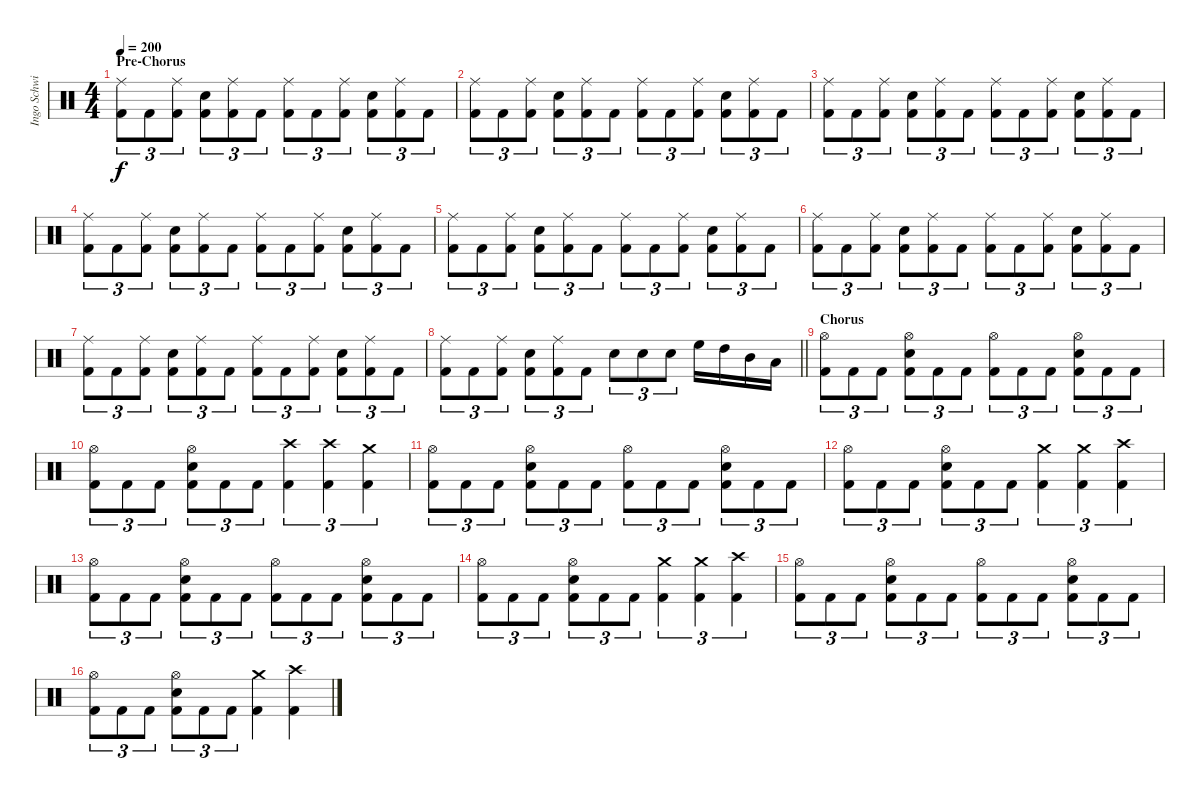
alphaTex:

\track ("Ingo Schwichtenberg" "Ingo Schwi") {instrument percussion}
\staff {score}
\articulation defaults
\ts (4 4)
\section ("" "Pre-Chorus")
\tempo 200
\clef neutral
\ks c
("Ride (middle)" "Kick (hit) 2").8{tu (3 2) dy f} "Kick (hit) 2".8{tu (3 2)} ("Ride (middle)" "Kick (hit) 2").8{tu (3 2)} ("Snare (hit) 2" "Kick (hit) 2").8{tu (3 2)} ("Ride (middle)" "Kick (hit) 2").8{tu (3 2)} "Kick (hit) 2".8{tu (3 2)} ("Ride (middle)" "Kick (hit) 2").8{tu (3 2)} "Kick (hit) 2".8{tu (3 2)} ("Ride (middle)" "Kick (hit) 2").8{tu (3 2)} ("Snare (hit) 2" "Kick (hit) 2").8{tu (3 2)} ("Ride (middle)" "Kick (hit) 2").8{tu (3 2)} "Kick (hit) 2".8{tu (3 2)} |
("Ride (middle)" "Kick (hit) 2").8{tu (3 2)} "Kick (hit) 2".8{tu (3 2)} ("Ride (middle)" "Kick (hit) 2").8{tu (3 2)} ("Snare (hit) 2" "Kick (hit) 2").8{tu (3 2)} ("Ride (middle)" "Kick (hit) 2").8{tu (3 2)} "Kick (hit) 2".8{tu (3 2)} ("Ride (middle)" "Kick (hit) 2").8{tu (3 2)} "Kick (hit) 2".8{tu (3 2)} ("Ride (middle)" "Kick (hit) 2").8{tu (3 2)} ("Snare (hit) 2" "Kick (hit) 2").8{tu (3 2)} ("Ride (middle)" "Kick (hit) 2").8{tu (3 2)} "Kick (hit) 2".8{tu (3 2)} |
("Ride (middle)" "Kick (hit) 2").8{tu (3 2)} "Kick (hit) 2".8{tu (3 2)} ("Ride (middle)" "Kick (hit) 2").8{tu (3 2)} ("Snare (hit) 2" "Kick (hit) 2").8{tu (3 2)} ("Ride (middle)" "Kick (hit) 2").8{tu (3 2)} "Kick (hit) 2".8{tu (3 2)} ("Ride (middle)" "Kick (hit) 2").8{tu (3 2)} "Kick (hit) 2".8{tu (3 2)} ("Ride (middle)" "Kick (hit) 2").8{tu (3 2)} ("Snare (hit) 2" "Kick (hit) 2").8{tu (3 2)} ("Ride (middle)" "Kick (hit) 2").8{tu (3 2)} "Kick (hit) 2".8{tu (3 2)} |
("Ride (middle)" "Kick (hit) 2").8{tu (3 2)} "Kick (hit) 2".8{tu (3 2)} ("Ride (middle)" "Kick (hit) 2").8{tu (3 2)} ("Snare (hit) 2" "Kick (hit) 2").8{tu (3 2)} ("Ride (middle)" "Kick (hit) 2").8{tu (3 2)} "Kick (hit) 2".8{tu (3 2)} ("Ride (middle)" "Kick (hit) 2").8{tu (3 2)} "Kick (hit) 2".8{tu (3 2)} ("Ride (middle)" "Kick (hit) 2").8{tu (3 2)} ("Snare (hit) 2" "Kick (hit) 2").8{tu (3 2)} ("Ride (middle)" "Kick (hit) 2").8{tu (3 2)} "Kick (hit) 2".8{tu (3 2)} |
("Ride (middle)" "Kick (hit) 2").8{tu (3 2)} "Kick (hit) 2".8{tu (3 2)} ("Ride (middle)" "Kick (hit) 2").8{tu (3 2)} ("Snare (hit) 2" "Kick (hit) 2").8{tu (3 2)} ("Ride (middle)" "Kick (hit) 2").8{tu (3 2)} "Kick (hit) 2".8{tu (3 2)} ("Ride (middle)" "Kick (hit) 2").8{tu (3 2)} "Kick (hit) 2".8{tu (3 2)} ("Ride (middle)" "Kick (hit) 2").8{tu (3 2)} ("Snare (hit) 2" "Kick (hit) 2").8{tu (3 2)} ("Ride (middle)" "Kick (hit) 2").8{tu (3 2)} "Kick (hit) 2".8{tu (3 2)} |
("Ride (middle)" "Kick (hit) 2").8{tu (3 2)} "Kick (hit) 2".8{tu (3 2)} ("Ride (middle)" "Kick (hit) 2").8{tu (3 2)} ("Snare (hit) 2" "Kick (hit) 2").8{tu (3 2)} ("Ride (middle)" "Kick (hit) 2").8{tu (3 2)} "Kick (hit) 2".8{tu (3 2)} ("Ride (middle)" "Kick (hit) 2").8{tu (3 2)} "Kick (hit) 2".8{tu (3 2)} ("Ride (middle)" "Kick (hit) 2").8{tu (3 2)} ("Snare (hit) 2" "Kick (hit) 2").8{tu (3 2)} ("Ride (middle)" "Kick (hit) 2").8{tu (3 2)} "Kick (hit) 2".8{tu (3 2)} |
("Ride (middle)" "Kick (hit) 2").8{tu (3 2)} "Kick (hit) 2".8{tu (3 2)} ("Ride (middle)" "Kick (hit) 2").8{tu (3 2)} ("Snare (hit) 2" "Kick (hit) 2").8{tu (3 2)} ("Ride (middle)" "Kick (hit) 2").8{tu (3 2)} "Kick (hit) 2".8{tu (3 2)} ("Ride (middle)" "Kick (hit) 2").8{tu (3 2)} "Kick (hit) 2".8{tu (3 2)} ("Ride (middle)" "Kick (hit) 2").8{tu (3 2)} ("Snare (hit) 2" "Kick (hit) 2").8{tu (3 2)} ("Ride (middle)" "Kick (hit) 2").8{tu (3 2)} "Kick (hit) 2".8{tu (3 2)} |
\barLineRight lightlight
("Ride (middle)" "Kick (hit) 2").8{tu (3 2)} "Kick (hit) 2".8{tu (3 2)} ("Ride (middle)" "Kick (hit) 2").8{tu (3 2)} ("Snare (hit) 2" "Kick (hit) 2").8{tu (3 2)} ("Ride (middle)" "Kick (hit) 2").8{tu (3 2)} "Kick (hit) 2".8{tu (3 2)} "Snare (hit) 2".8{tu (3 2)} "Snare (hit) 2".8{tu (3 2)} "Snare (hit) 2".8{tu (3 2)} "High Floor Tom (hit)".16 "High Tom (hit)".16 "Mid Tom (hit)".16 "Low Tom (hit)".16 |
\section ("" "Chorus")
("Hi-Hat (open)" "Kick (hit) 2").8{tu (3 2)} "Kick (hit) 2".8{tu (3 2)} "Kick (hit) 2".8{tu (3 2)} ("Hi-Hat (open)" "Snare (hit) 2" "Kick (hit) 2").8{tu (3 2)} "Kick (hit) 2".8{tu (3 2)} "Kick (hit) 2".8{tu (3 2)} ("Hi-Hat (open)" "Kick (hit) 2").8{tu (3 2)} "Kick (hit) 2".8{tu (3 2)} "Kick (hit) 2".8{tu (3 2)} ("Hi-Hat (open)" "Snare (hit) 2" "Kick (hit) 2").8{tu (3 2)} "Kick (hit) 2".8{tu (3 2)} "Kick (hit) 2".8{tu (3 2)} |
("Hi-Hat (open)" "Kick (hit) 2").8{tu (3 2)} "Kick (hit) 2".8{tu (3 2)} "Kick (hit) 2".8{tu (3 2)} ("Hi-Hat (open)" "Snare (hit) 2" "Kick (hit) 2").8{tu (3 2)} "Kick (hit) 2".8{tu (3 2)} "Kick (hit) 2".8{tu (3 2)} ("Crash high (hit)" "Kick (hit) 2").4{tu (3 2)} ("Crash high (hit)" "Kick (hit) 2").4{tu (3 2)} ("Crash medium (hit)" "Kick (hit) 2").4{tu (3 2)} |
("Hi-Hat (open)" "Kick (hit) 2").8{tu (3 2)} "Kick (hit) 2".8{tu (3 2)} "Kick (hit) 2".8{tu (3 2)} ("Hi-Hat (open)" "Snare (hit) 2" "Kick (hit) 2").8{tu (3 2)} "Kick (hit) 2".8{tu (3 2)} "Kick (hit) 2".8{tu (3 2)} ("Hi-Hat (open)" "Kick (hit) 2").8{tu (3 2)} "Kick (hit) 2".8{tu (3 2)} "Kick (hit) 2".8{tu (3 2)} ("Hi-Hat (open)" "Snare (hit) 2" "Kick (hit) 2").8{tu (3 2)} "Kick (hit) 2".8{tu (3 2)} "Kick (hit) 2".8{tu (3 2)} |
("Hi-Hat (open)" "Kick (hit) 2").8{tu (3 2)} "Kick (hit) 2".8{tu (3 2)} "Kick (hit) 2".8{tu (3 2)} ("Hi-Hat (open)" "Snare (hit) 2" "Kick (hit) 2").8{tu (3 2)} "Kick (hit) 2".8{tu (3 2)} "Kick (hit) 2".8{tu (3 2)} ("Crash medium (hit)" "Kick (hit) 2").4{tu (3 2)} ("Crash medium (hit)" "Kick (hit) 2").4{tu (3 2)} ("Crash high (hit)" "Kick (hit) 2").4{tu (3 2)} |
("Hi-Hat (open)" "Kick (hit) 2").8{tu (3 2)} "Kick (hit) 2".8{tu (3 2)} "Kick (hit) 2".8{tu (3 2)} ("Hi-Hat (open)" "Snare (hit) 2" "Kick (hit) 2").8{tu (3 2)} "Kick (hit) 2".8{tu (3 2)} "Kick (hit) 2".8{tu (3 2)} ("Hi-Hat (open)" "Kick (hit) 2").8{tu (3 2)} "Kick (hit) 2".8{tu (3 2)} "Kick (hit) 2".8{tu (3 2)} ("Hi-Hat (open)" "Snare (hit) 2" "Kick (hit) 2").8{tu (3 2)} "Kick (hit) 2".8{tu (3 2)} "Kick (hit) 2".8{tu (3 2)} |
("Hi-Hat (open)" "Kick (hit) 2").8{tu (3 2)} "Kick (hit) 2".8{tu (3 2)} "Kick (hit) 2".8{tu (3 2)} ("Hi-Hat (open)" "Snare (hit) 2" "Kick (hit) 2").8{tu (3 2)} "Kick (hit) 2".8{tu (3 2)} "Kick (hit) 2".8{tu (3 2)} ("Crash medium (hit)" "Kick (hit) 2").4{tu (3 2)} ("Crash medium (hit)" "Kick (hit) 2").4{tu (3 2)} ("Crash high (hit)" "Kick (hit) 2").4{tu (3 2)} |
("Hi-Hat (open)" "Kick (hit) 2").8{tu (3 2)} "Kick (hit) 2".8{tu (3 2)} "Kick (hit) 2".8{tu (3 2)} ("Hi-Hat (open)" "Snare (hit) 2" "Kick (hit) 2").8{tu (3 2)} "Kick (hit) 2".8{tu (3 2)} "Kick (hit) 2".8{tu (3 2)} ("Hi-Hat (open)" "Kick (hit) 2").8{tu (3 2)} "Kick (hit) 2".8{tu (3 2)} "Kick (hit) 2".8{tu (3 2)} ("Hi-Hat (open)" "Snare (hit) 2" "Kick (hit) 2").8{tu (3 2)} "Kick (hit) 2".8{tu (3 2)} "Kick (hit) 2".8{tu (3 2)} |
("Hi-Hat (open)" "Kick (hit) 2").8{tu (3 2)} "Kick (hit) 2".8{tu (3 2)} "Kick (hit) 2".8{tu (3 2)} ("Hi-Hat (open)" "Snare (hit) 2" "Kick (hit) 2").8{tu (3 2)} "Kick (hit) 2".8{tu (3 2)} "Kick (hit) 2".8{tu (3 2)} ("Crash medium (hit)" "Kick (hit) 2").4 ("Crash high (hit)" "Kick (hit) 2").4
